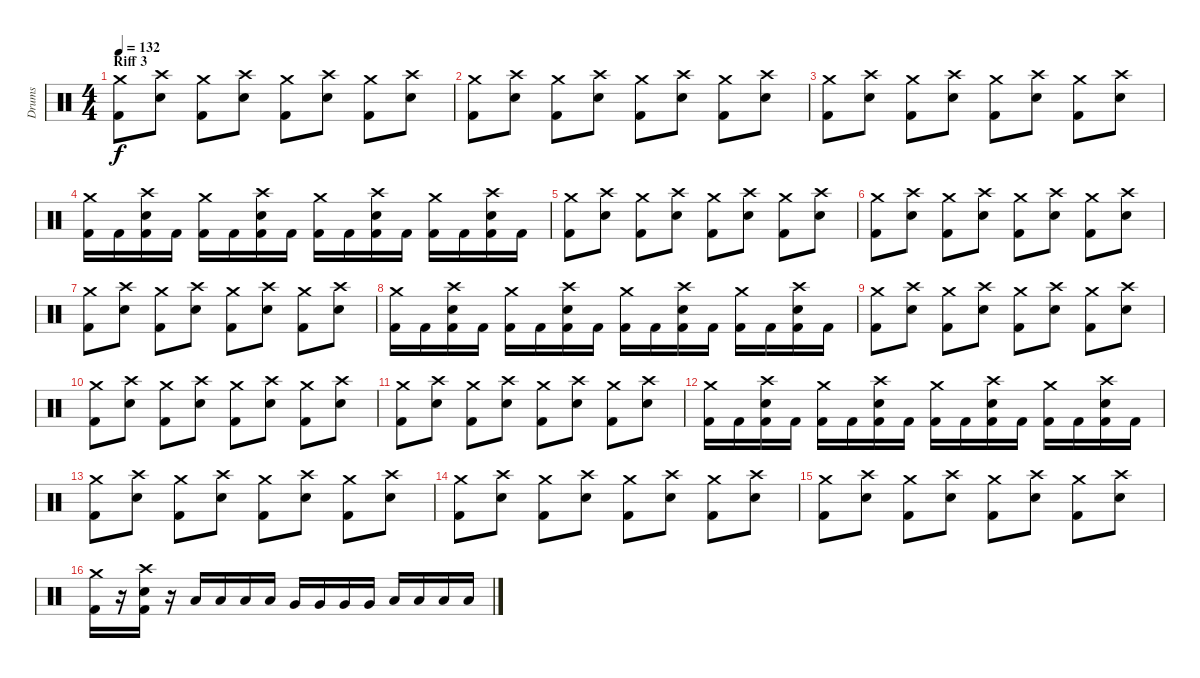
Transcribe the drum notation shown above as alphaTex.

\track ("Drums" "Drums") {instrument percussion}
\staff {score}
\articulation defaults
\ts (4 4)
\section ("" "Riff 3")
\tempo 132
\clef neutral
\ks c
("Crash medium (hit)" "Kick (hit) 2").8{dy f} ("Crash high (hit)" "Electric Snare (hit)").8 ("Crash medium (hit)" "Kick (hit) 2").8 ("Crash high (hit)" "Electric Snare (hit)").8 ("Crash medium (hit)" "Kick (hit) 2").8 ("Crash high (hit)" "Electric Snare (hit)").8 ("Crash medium (hit)" "Kick (hit) 2").8 ("Crash high (hit)" "Electric Snare (hit)").8 |
("Crash medium (hit)" "Kick (hit) 2").8 ("Crash high (hit)" "Electric Snare (hit)").8 ("Crash medium (hit)" "Kick (hit) 2").8 ("Crash high (hit)" "Electric Snare (hit)").8 ("Crash medium (hit)" "Kick (hit) 2").8 ("Crash high (hit)" "Electric Snare (hit)").8 ("Crash medium (hit)" "Kick (hit) 2").8 ("Crash high (hit)" "Electric Snare (hit)").8 |
("Crash medium (hit)" "Kick (hit) 2").8 ("Crash high (hit)" "Electric Snare (hit)").8 ("Crash medium (hit)" "Kick (hit) 2").8 ("Crash high (hit)" "Electric Snare (hit)").8 ("Crash medium (hit)" "Kick (hit) 2").8 ("Crash high (hit)" "Electric Snare (hit)").8 ("Crash medium (hit)" "Kick (hit) 2").8 ("Crash high (hit)" "Electric Snare (hit)").8 |
("Crash medium (hit)" "Kick (hit) 2").16 "Kick (hit) 2".16 ("Crash high (hit)" "Kick (hit) 2" "Electric Snare (hit)").16 "Kick (hit) 2".16 ("Crash medium (hit)" "Kick (hit) 2").16 "Kick (hit) 2".16 ("Crash high (hit)" "Kick (hit) 2" "Electric Snare (hit)").16 "Kick (hit) 2".16 ("Crash medium (hit)" "Kick (hit) 2").16 "Kick (hit) 2".16 ("Crash high (hit)" "Kick (hit) 2" "Electric Snare (hit)").16 "Kick (hit) 2".16 ("Crash medium (hit)" "Kick (hit) 2").16 "Kick (hit) 2".16 ("Crash high (hit)" "Kick (hit) 2" "Electric Snare (hit)").16 "Kick (hit) 2".16 |
("Crash medium (hit)" "Kick (hit) 2").8 ("Crash high (hit)" "Electric Snare (hit)").8 ("Crash medium (hit)" "Kick (hit) 2").8 ("Crash high (hit)" "Electric Snare (hit)").8 ("Crash medium (hit)" "Kick (hit) 2").8 ("Crash high (hit)" "Electric Snare (hit)").8 ("Crash medium (hit)" "Kick (hit) 2").8 ("Crash high (hit)" "Electric Snare (hit)").8 |
("Crash medium (hit)" "Kick (hit) 2").8 ("Crash high (hit)" "Electric Snare (hit)").8 ("Crash medium (hit)" "Kick (hit) 2").8 ("Crash high (hit)" "Electric Snare (hit)").8 ("Crash medium (hit)" "Kick (hit) 2").8 ("Crash high (hit)" "Electric Snare (hit)").8 ("Crash medium (hit)" "Kick (hit) 2").8 ("Crash high (hit)" "Electric Snare (hit)").8 |
("Crash medium (hit)" "Kick (hit) 2").8 ("Crash high (hit)" "Electric Snare (hit)").8 ("Crash medium (hit)" "Kick (hit) 2").8 ("Crash high (hit)" "Electric Snare (hit)").8 ("Crash medium (hit)" "Kick (hit) 2").8 ("Crash high (hit)" "Electric Snare (hit)").8 ("Crash medium (hit)" "Kick (hit) 2").8 ("Crash high (hit)" "Electric Snare (hit)").8 |
("Crash medium (hit)" "Kick (hit) 2").16 "Kick (hit) 2".16 ("Crash high (hit)" "Kick (hit) 2" "Electric Snare (hit)").16 "Kick (hit) 2".16 ("Crash medium (hit)" "Kick (hit) 2").16 "Kick (hit) 2".16 ("Crash high (hit)" "Kick (hit) 2" "Electric Snare (hit)").16 "Kick (hit) 2".16 ("Crash medium (hit)" "Kick (hit) 2").16 "Kick (hit) 2".16 ("Crash high (hit)" "Kick (hit) 2" "Electric Snare (hit)").16 "Kick (hit) 2".16 ("Crash medium (hit)" "Kick (hit) 2").16 "Kick (hit) 2".16 ("Crash high (hit)" "Kick (hit) 2" "Electric Snare (hit)").16 "Kick (hit) 2".16 |
("Crash medium (hit)" "Kick (hit) 2").8 ("Crash high (hit)" "Electric Snare (hit)").8 ("Crash medium (hit)" "Kick (hit) 2").8 ("Crash high (hit)" "Electric Snare (hit)").8 ("Crash medium (hit)" "Kick (hit) 2").8 ("Crash high (hit)" "Electric Snare (hit)").8 ("Crash medium (hit)" "Kick (hit) 2").8 ("Crash high (hit)" "Electric Snare (hit)").8 |
("Crash medium (hit)" "Kick (hit) 2").8 ("Crash high (hit)" "Electric Snare (hit)").8 ("Crash medium (hit)" "Kick (hit) 2").8 ("Crash high (hit)" "Electric Snare (hit)").8 ("Crash medium (hit)" "Kick (hit) 2").8 ("Crash high (hit)" "Electric Snare (hit)").8 ("Crash medium (hit)" "Kick (hit) 2").8 ("Crash high (hit)" "Electric Snare (hit)").8 |
("Crash medium (hit)" "Kick (hit) 2").8 ("Crash high (hit)" "Electric Snare (hit)").8 ("Crash medium (hit)" "Kick (hit) 2").8 ("Crash high (hit)" "Electric Snare (hit)").8 ("Crash medium (hit)" "Kick (hit) 2").8 ("Crash high (hit)" "Electric Snare (hit)").8 ("Crash medium (hit)" "Kick (hit) 2").8 ("Crash high (hit)" "Electric Snare (hit)").8 |
("Crash medium (hit)" "Kick (hit) 2").16 "Kick (hit) 2".16 ("Crash high (hit)" "Kick (hit) 2" "Electric Snare (hit)").16 "Kick (hit) 2".16 ("Crash medium (hit)" "Kick (hit) 2").16 "Kick (hit) 2".16 ("Crash high (hit)" "Kick (hit) 2" "Electric Snare (hit)").16 "Kick (hit) 2".16 ("Crash medium (hit)" "Kick (hit) 2").16 "Kick (hit) 2".16 ("Crash high (hit)" "Kick (hit) 2" "Electric Snare (hit)").16 "Kick (hit) 2".16 ("Crash medium (hit)" "Kick (hit) 2").16 "Kick (hit) 2".16 ("Crash high (hit)" "Kick (hit) 2" "Electric Snare (hit)").16 "Kick (hit) 2".16 |
("Crash medium (hit)" "Kick (hit) 2").8 ("Crash high (hit)" "Electric Snare (hit)").8 ("Crash medium (hit)" "Kick (hit) 2").8 ("Crash high (hit)" "Electric Snare (hit)").8 ("Crash medium (hit)" "Kick (hit) 2").8 ("Crash high (hit)" "Electric Snare (hit)").8 ("Crash medium (hit)" "Kick (hit) 2").8 ("Crash high (hit)" "Electric Snare (hit)").8 |
("Crash medium (hit)" "Kick (hit) 2").8 ("Crash high (hit)" "Electric Snare (hit)").8 ("Crash medium (hit)" "Kick (hit) 2").8 ("Crash high (hit)" "Electric Snare (hit)").8 ("Crash medium (hit)" "Kick (hit) 2").8 ("Crash high (hit)" "Electric Snare (hit)").8 ("Crash medium (hit)" "Kick (hit) 2").8 ("Crash high (hit)" "Electric Snare (hit)").8 |
("Crash medium (hit)" "Kick (hit) 2").8 ("Crash high (hit)" "Electric Snare (hit)").8 ("Crash medium (hit)" "Kick (hit) 2").8 ("Crash high (hit)" "Electric Snare (hit)").8 ("Crash medium (hit)" "Kick (hit) 2").8 ("Crash high (hit)" "Electric Snare (hit)").8 ("Crash medium (hit)" "Kick (hit) 2").8 ("Crash high (hit)" "Electric Snare (hit)").8 |
("Crash medium (hit)" "Kick (hit) 2").16 r.16 ("Crash high (hit)" "Kick (hit) 2" "Electric Snare (hit)").16 r.16 "Low Tom (hit)".16 "Low Tom (hit)".16 "Low Tom (hit)".16 "Low Tom (hit)".16 "Very Low Tom (hit)".16 "Very Low Tom (hit)".16 "Very Low Tom (hit)".16 "Very Low Tom (hit)".16 "Low Floor Tom (hit)".16 "Low Floor Tom (hit)".16 "Low Floor Tom (hit)".16 "Low Floor Tom (hit)".16
